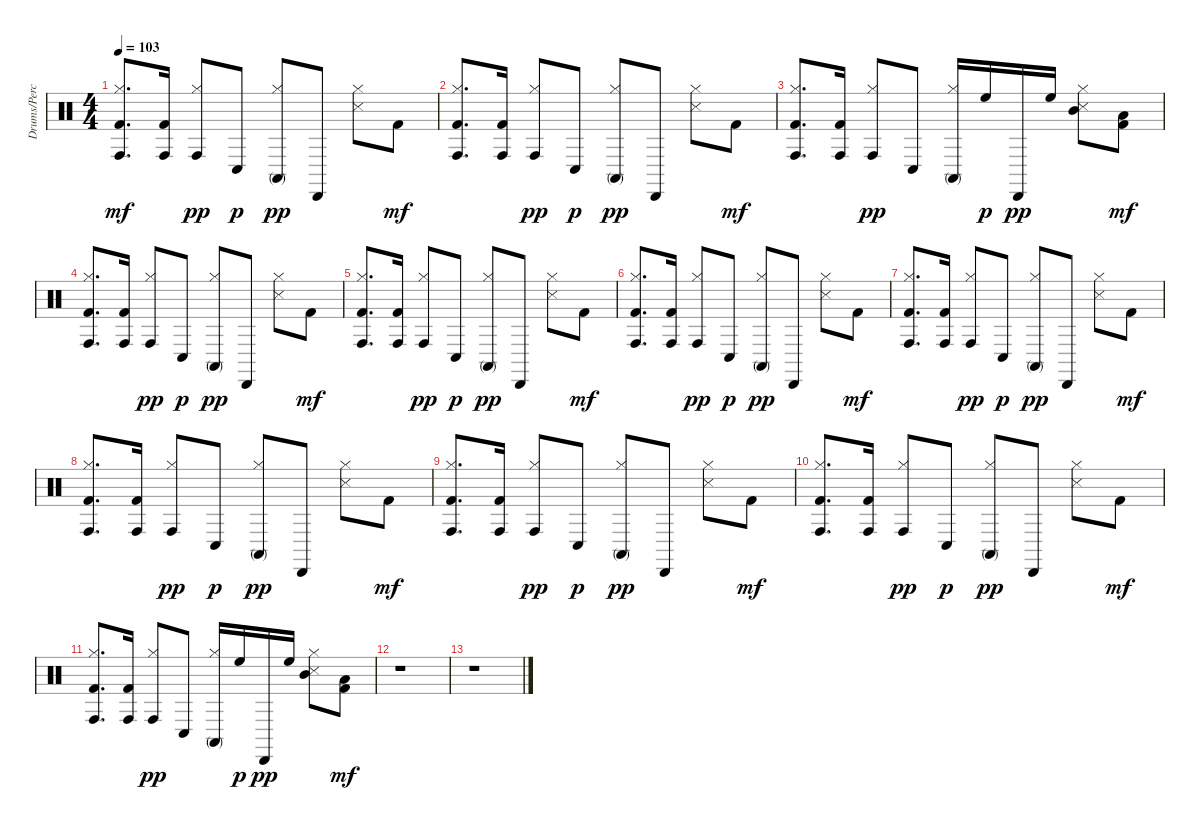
\track ("Drums/Perc." "Drums/Perc") {instrument percussion}
\staff {score}
\articulation defaults
\ts (4 4)
\tempo 103
\clef neutral
\ks c
("Conga high (hit)" "Hi-Hat (closed)" "Kick (hit) 2").8{d dy mf} ("Conga high (hit)" "Kick (hit) 2").16 ("Conga high (hit)" "Hi-Hat (closed)").8{dy pp} "Conga low (hit)".8{dy p} ("Conga high (mute)" "Hi-Hat (closed)").8{dy pp} "Cabasa (hit)".8 ("Hi-Hat (closed)" "Snare (side stick) 3").8 "Kick (hit) 2".8{dy mf} |
("Conga high (hit)" "Hi-Hat (closed)" "Kick (hit) 2").8{d} ("Conga high (hit)" "Kick (hit) 2").16 ("Conga high (hit)" "Hi-Hat (closed)").8{dy pp} "Conga low (hit)".8{dy p} ("Conga high (mute)" "Hi-Hat (closed)").8{dy pp} "Cabasa (hit)".8 ("Hi-Hat (closed)" "Snare (side stick) 3").8 "Kick (hit) 2".8{dy mf} |
("Conga high (hit)" "Hi-Hat (closed)" "Kick (hit) 2").8{d} ("Conga high (hit)" "Kick (hit) 2").16 ("Conga high (hit)" "Hi-Hat (closed)").8{dy pp} "Conga low (hit)".8 ("Conga high (mute)" "Hi-Hat (closed)").16 "High Floor Tom (hit)".16{dy p} "Cabasa (hit)".16{dy pp} "High Floor Tom (hit)".16 ("Mid Tom (hit)" "Hi-Hat (closed)" "Snare (side stick) 3").8 ("Low Floor Tom (hit)" "Kick (hit) 2").8{dy mf} |
("Conga high (hit)" "Hi-Hat (closed)" "Kick (hit) 2").8{d} ("Conga high (hit)" "Kick (hit) 2").16 ("Conga high (hit)" "Hi-Hat (closed)").8{dy pp} "Conga low (hit)".8{dy p} ("Conga high (mute)" "Hi-Hat (closed)").8{dy pp} "Cabasa (hit)".8 ("Hi-Hat (closed)" "Snare (side stick) 3").8 "Kick (hit) 2".8{dy mf} |
("Conga high (hit)" "Hi-Hat (closed)" "Kick (hit) 2").8{d} ("Conga high (hit)" "Kick (hit) 2").16 ("Conga high (hit)" "Hi-Hat (closed)").8{dy pp} "Conga low (hit)".8{dy p} ("Conga high (mute)" "Hi-Hat (closed)").8{dy pp} "Cabasa (hit)".8 ("Hi-Hat (closed)" "Snare (side stick) 3").8 "Kick (hit) 2".8{dy mf} |
("Conga high (hit)" "Hi-Hat (closed)" "Kick (hit) 2").8{d} ("Conga high (hit)" "Kick (hit) 2").16 ("Conga high (hit)" "Hi-Hat (closed)").8{dy pp} "Conga low (hit)".8{dy p} ("Conga high (mute)" "Hi-Hat (closed)").8{dy pp} "Cabasa (hit)".8 ("Hi-Hat (closed)" "Snare (side stick) 3").8 "Kick (hit) 2".8{dy mf} |
("Conga high (hit)" "Hi-Hat (closed)" "Kick (hit) 2").8{d} ("Conga high (hit)" "Kick (hit) 2").16 ("Conga high (hit)" "Hi-Hat (closed)").8{dy pp} "Conga low (hit)".8{dy p} ("Conga high (mute)" "Hi-Hat (closed)").8{dy pp} "Cabasa (hit)".8 ("Hi-Hat (closed)" "Snare (side stick) 3").8 "Kick (hit) 2".8{dy mf} |
("Conga high (hit)" "Hi-Hat (closed)" "Kick (hit) 2").8{d} ("Conga high (hit)" "Kick (hit) 2").16 ("Conga high (hit)" "Hi-Hat (closed)").8{dy pp} "Conga low (hit)".8{dy p} ("Conga high (mute)" "Hi-Hat (closed)").8{dy pp} "Cabasa (hit)".8 ("Hi-Hat (closed)" "Snare (side stick) 3").8 "Kick (hit) 2".8{dy mf} |
("Conga high (hit)" "Hi-Hat (closed)" "Kick (hit) 2").8{d} ("Conga high (hit)" "Kick (hit) 2").16 ("Conga high (hit)" "Hi-Hat (closed)").8{dy pp} "Conga low (hit)".8{dy p} ("Conga high (mute)" "Hi-Hat (closed)").8{dy pp} "Cabasa (hit)".8 ("Hi-Hat (closed)" "Snare (side stick) 3").8 "Kick (hit) 2".8{dy mf} |
("Conga high (hit)" "Hi-Hat (closed)" "Kick (hit) 2").8{d} ("Conga high (hit)" "Kick (hit) 2").16 ("Conga high (hit)" "Hi-Hat (closed)").8{dy pp} "Conga low (hit)".8{dy p} ("Conga high (mute)" "Hi-Hat (closed)").8{dy pp} "Cabasa (hit)".8 ("Hi-Hat (closed)" "Snare (side stick) 3").8 "Kick (hit) 2".8{dy mf} |
("Conga high (hit)" "Hi-Hat (closed)" "Kick (hit) 2").8{d} ("Conga high (hit)" "Kick (hit) 2").16 ("Conga high (hit)" "Hi-Hat (closed)").8{dy pp} "Conga low (hit)".8 ("Conga high (mute)" "Hi-Hat (closed)").16 "High Floor Tom (hit)".16{dy p} "Cabasa (hit)".16{dy pp} "High Floor Tom (hit)".16 ("Mid Tom (hit)" "Hi-Hat (closed)" "Snare (side stick) 3").8 ("Low Floor Tom (hit)" "Kick (hit) 2").8{dy mf} |
r.1 |
r.1
